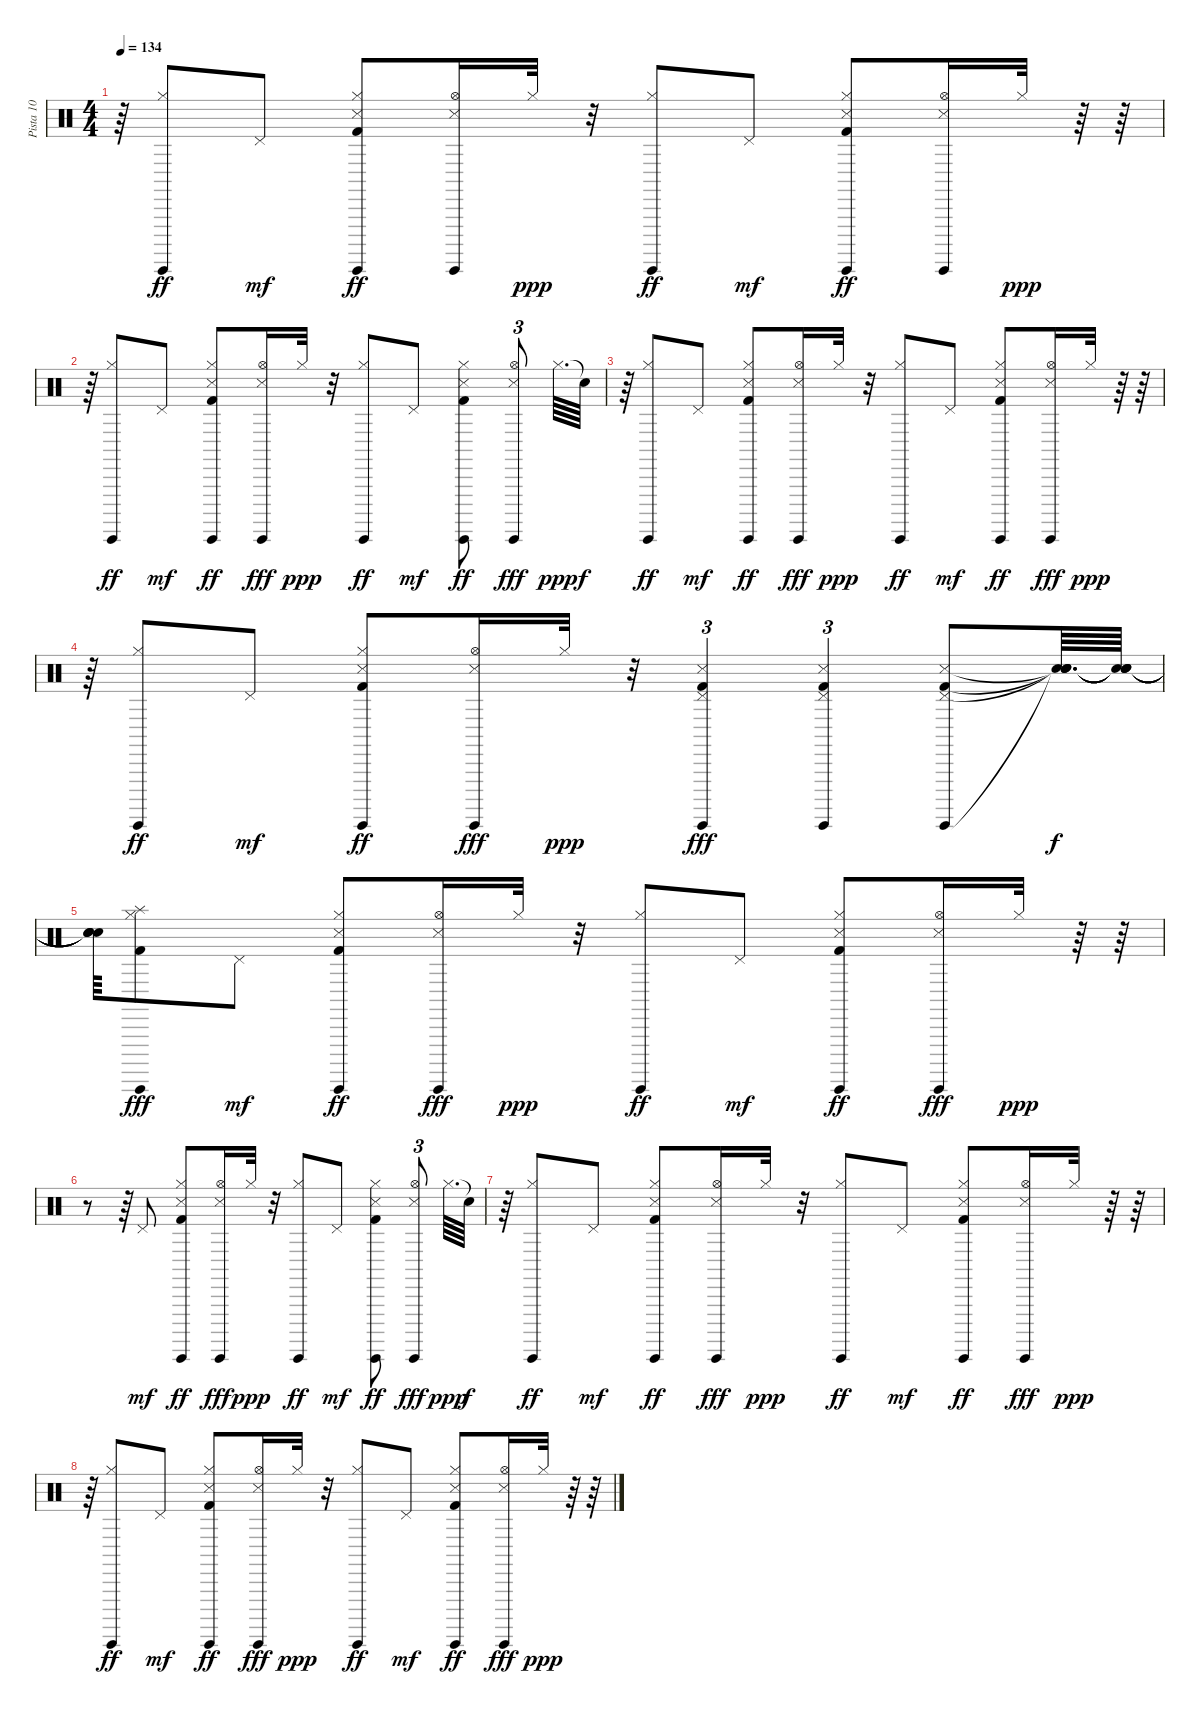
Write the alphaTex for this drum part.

\track ("Pista 10" "Pista 10") {instrument percussion}
\staff {score}
\articulation defaults
\ts (4 4)
\tempo 134
\clef neutral
\ks c
r.64{dy ppp} ("Hi-Hat (closed)" "Guiro (hit)").8{dy ff} "Pedal Hi-Hat (hit)".8{dy mf} ("Hi-Hat (closed)" "Kick (hit) 2" "Snare (side stick) 3" "Guiro (hit)").8{dy ff} ("Hi-Hat (open)" "Snare (side stick) 3" "Guiro (hit)").16 "Hi-Hat (closed)".32{dy ppp} r.32 ("Hi-Hat (closed)" "Guiro (hit)").8{dy ff} "Pedal Hi-Hat (hit)".8{dy mf} ("Hi-Hat (closed)" "Kick (hit) 2" "Snare (side stick) 3" "Guiro (hit)").8{dy ff} ("Hi-Hat (open)" "Snare (side stick) 3" "Guiro (hit)").16 "Hi-Hat (closed)".32{dy ppp} r.64 r.64 |
r.64 ("Hi-Hat (closed)" "Guiro (hit)").8{dy ff} "Pedal Hi-Hat (hit)".8{dy mf} ("Hi-Hat (closed)" "Guiro (hit)" "Snare (side stick) 3" "Kick (hit) 2").8{dy ff} ("Hi-Hat (open)" "Guiro (hit)" "Snare (side stick) 3").16{dy fff} "Hi-Hat (closed)".32{dy ppp} r.32 ("Hi-Hat (closed)" "Guiro (hit)").8{dy ff} "Pedal Hi-Hat (hit)".8{dy mf} ("Hi-Hat (closed)" "Guiro (hit)" "Snare (side stick) 3" "Kick (hit) 2").8{dy ff} ("Hi-Hat (open)" "Guiro (hit)" "Snare (side stick) 3").8{tu (3 2) dy fff} "Hi-Hat (closed)".64{d dy ppp} "Snare (hit)"{t}.64{dy f} |
r.64 ("Hi-Hat (closed)" "Guiro (hit)").8{dy ff} "Pedal Hi-Hat (hit)".8{dy mf} ("Hi-Hat (closed)" "Guiro (hit)" "Snare (side stick) 3" "Kick (hit) 2").8{dy ff} ("Hi-Hat (open)" "Guiro (hit)" "Snare (side stick) 3").16{dy fff} "Hi-Hat (closed)".32{dy ppp} r.32 ("Hi-Hat (closed)" "Guiro (hit)").8{dy ff} "Pedal Hi-Hat (hit)".8{dy mf} ("Hi-Hat (closed)" "Guiro (hit)" "Snare (side stick) 3" "Kick (hit) 2").8{dy ff} ("Hi-Hat (open)" "Guiro (hit)" "Snare (side stick) 3").16{dy fff} "Hi-Hat (closed)".32{dy ppp} r.64 r.64 |
r.64 ("Hi-Hat (closed)" "Guiro (hit)").8{dy ff} "Pedal Hi-Hat (hit)".8{dy mf} ("Hi-Hat (closed)" "Guiro (hit)" "Snare (side stick) 3" "Kick (hit) 2").8{dy ff} ("Hi-Hat (open)" "Guiro (hit)" "Snare (side stick) 3").16{dy fff} "Hi-Hat (closed)".32{dy ppp} r.32 ("Snare (side stick) 3" "Kick (hit) 2" "Pedal Hi-Hat (hit)" "Guiro (hit)").4{tu (3 2) dy fff} ("Snare (side stick) 3" "Kick (hit) 2" "Pedal Hi-Hat (hit)" "Guiro (hit)").4{tu (3 2)} ("Snare (side stick) 3" "Kick (hit) 2" "Pedal Hi-Hat (hit)" "Guiro (hit)").8 ("Snare (hit)"{t} "Snare (hit)"{t} "Snare (hit)"{t} "Snare (hit)"{t}).64{d dy f} ("Snare (hit)"{t} "Snare (hit)"{t} "Snare (hit)"{t} "Snare (hit)"{t}).64 |
("Snare (hit)"{t} "Snare (hit)"{t} "Snare (hit)"{t} "Snare (hit)"{t}).64 ("Hi-Hat (closed)" "Guiro (hit)" "Splash (hit)" "Kick (hit) 2").8{dy fff} "Pedal Hi-Hat (hit)".8{dy mf} ("Hi-Hat (closed)" "Guiro (hit)" "Snare (side stick) 3" "Kick (hit) 2").8{dy ff} ("Hi-Hat (open)" "Guiro (hit)" "Snare (side stick) 3").16{dy fff} "Hi-Hat (closed)".32{dy ppp} r.32 ("Hi-Hat (closed)" "Guiro (hit)").8{dy ff} "Pedal Hi-Hat (hit)".8{dy mf} ("Hi-Hat (closed)" "Guiro (hit)" "Snare (side stick) 3" "Kick (hit) 2").8{dy ff} ("Hi-Hat (open)" "Guiro (hit)" "Snare (side stick) 3").16{dy fff} "Hi-Hat (closed)".32{dy ppp} r.64 r.64 |
r.8 r.64 "Pedal Hi-Hat (hit)".8{dy mf} ("Hi-Hat (closed)" "Guiro (hit)" "Snare (side stick) 3" "Kick (hit) 2").8{dy ff} ("Hi-Hat (open)" "Guiro (hit)" "Snare (side stick) 3").16{dy fff} "Hi-Hat (closed)".32{dy ppp} r.32 ("Hi-Hat (closed)" "Guiro (hit)").8{dy ff} "Pedal Hi-Hat (hit)".8{dy mf} ("Hi-Hat (closed)" "Guiro (hit)" "Snare (side stick) 3" "Kick (hit) 2").8{dy ff} ("Hi-Hat (open)" "Guiro (hit)" "Snare (side stick) 3").8{tu (3 2) dy fff} "Hi-Hat (closed)".64{d dy ppp} "Snare (hit)"{t}.64{dy f} |
r.64 ("Hi-Hat (closed)" "Guiro (hit)").8{dy ff} "Pedal Hi-Hat (hit)".8{dy mf} ("Hi-Hat (closed)" "Guiro (hit)" "Snare (side stick) 3" "Kick (hit) 2").8{dy ff} ("Hi-Hat (open)" "Guiro (hit)" "Snare (side stick) 3").16{dy fff} "Hi-Hat (closed)".32{dy ppp} r.32 ("Hi-Hat (closed)" "Guiro (hit)").8{dy ff} "Pedal Hi-Hat (hit)".8{dy mf} ("Hi-Hat (closed)" "Guiro (hit)" "Snare (side stick) 3" "Kick (hit) 2").8{dy ff} ("Hi-Hat (open)" "Guiro (hit)" "Snare (side stick) 3").16{dy fff} "Hi-Hat (closed)".32{dy ppp} r.64 r.64 |
r.64 ("Hi-Hat (closed)" "Guiro (hit)").8{dy ff} "Pedal Hi-Hat (hit)".8{dy mf} ("Hi-Hat (closed)" "Guiro (hit)" "Snare (side stick) 3" "Kick (hit) 2").8{dy ff} ("Hi-Hat (open)" "Guiro (hit)" "Snare (side stick) 3").16{dy fff} "Hi-Hat (closed)".32{dy ppp} r.32 ("Hi-Hat (closed)" "Guiro (hit)").8{dy ff} "Pedal Hi-Hat (hit)".8{dy mf} ("Hi-Hat (closed)" "Guiro (hit)" "Snare (side stick) 3" "Kick (hit) 2").8{dy ff} ("Hi-Hat (open)" "Guiro (hit)" "Snare (side stick) 3").16{dy fff} "Hi-Hat (closed)".32{dy ppp} r.64 r.64
